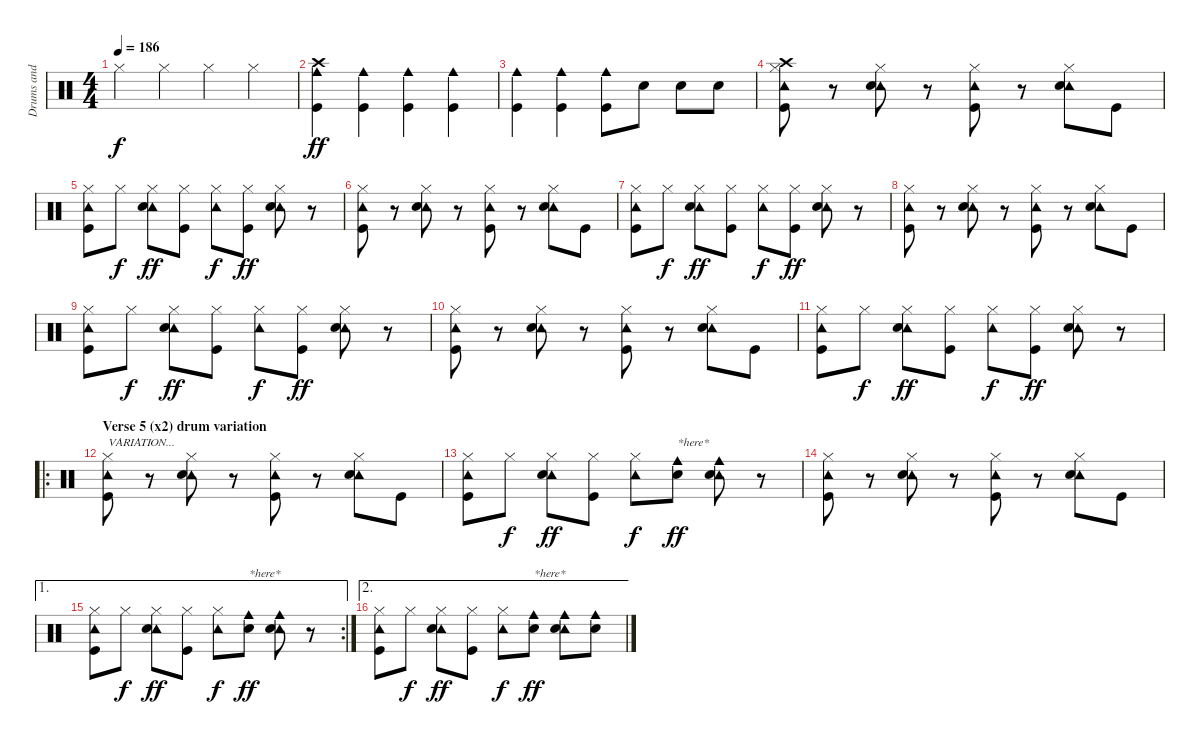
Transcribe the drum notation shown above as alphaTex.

\track ("Drums and Percs" "Drums and ") {instrument percussion}
\staff {score}
\articulation defaults
\ts (4 4)
\tempo 186
\clef neutral
\ks c "Hi-Hat (closed)".4{dy f} "Hi-Hat (closed)".4 "Hi-Hat (closed)".4 "Hi-Hat (closed)".4
|
("Cowbell medium (hit)" "Crash high (hit)" "Kick (hit)").4{dy ff} ("Cowbell medium (hit)" "Kick (hit)").4 ("Cowbell medium (hit)" "Kick (hit)").4 ("Cowbell medium (hit)" "Kick (hit)").4 |
("Cowbell medium (hit)" "Kick (hit)").4 ("Cowbell medium (hit)" "Kick (hit)").4 ("Cowbell medium (hit)" "Kick (hit)").8 "Electric Snare (hit)".8 "Electric Snare (hit)".8 "Electric Snare (hit)".8 |
("Hi-Hat (closed)" "Tambourine (hit)" "Crash high (hit)" "Kick (hit)").8 r.8 ("Hi-Hat (closed)" "Tambourine (hit)" "Electric Snare (hit)").8 r.8 ("Hi-Hat (closed)" "Tambourine (hit)" "Kick (hit)").8 r.8 ("Hi-Hat (closed)" "Tambourine (hit)" "Electric Snare (hit)").8 "Kick (hit)".8 |
("Hi-Hat (closed)" "Tambourine (hit)" "Kick (hit)").8 "Hi-Hat (closed)".8{dy f} ("Hi-Hat (closed)" "Tambourine (hit)" "Electric Snare (hit)").8{dy ff} ("Hi-Hat (closed)" "Kick (hit)").8 ("Hi-Hat (closed)" "Tambourine (hit)").8{dy f} ("Hi-Hat (closed)" "Kick (hit)").8{dy ff} ("Hi-Hat (closed)" "Tambourine (hit)" "Electric Snare (hit)").8 r.8 |
("Hi-Hat (closed)" "Tambourine (hit)" "Kick (hit)").8 r.8 ("Hi-Hat (closed)" "Tambourine (hit)" "Electric Snare (hit)").8 r.8 ("Hi-Hat (closed)" "Tambourine (hit)" "Kick (hit)").8 r.8 ("Hi-Hat (closed)" "Tambourine (hit)" "Electric Snare (hit)").8 "Kick (hit)".8 |
("Hi-Hat (closed)" "Tambourine (hit)" "Kick (hit)").8 "Hi-Hat (closed)".8{dy f} ("Hi-Hat (closed)" "Tambourine (hit)" "Electric Snare (hit)").8{dy ff} ("Hi-Hat (closed)" "Kick (hit)").8 ("Hi-Hat (closed)" "Tambourine (hit)").8{dy f} ("Hi-Hat (closed)" "Kick (hit)").8{dy ff} ("Hi-Hat (closed)" "Tambourine (hit)" "Electric Snare (hit)").8 r.8 |
("Hi-Hat (closed)" "Tambourine (hit)" "Kick (hit)").8 r.8 ("Hi-Hat (closed)" "Tambourine (hit)" "Electric Snare (hit)").8 r.8 ("Hi-Hat (closed)" "Tambourine (hit)" "Kick (hit)").8 r.8 ("Hi-Hat (closed)" "Tambourine (hit)" "Electric Snare (hit)").8 "Kick (hit)".8 |
("Hi-Hat (closed)" "Tambourine (hit)" "Kick (hit)").8 "Hi-Hat (closed)".8{dy f} ("Hi-Hat (closed)" "Tambourine (hit)" "Electric Snare (hit)").8{dy ff} ("Hi-Hat (closed)" "Kick (hit)").8 ("Hi-Hat (closed)" "Tambourine (hit)").8{dy f} ("Hi-Hat (closed)" "Kick (hit)").8{dy ff} ("Hi-Hat (closed)" "Tambourine (hit)" "Electric Snare (hit)").8 r.8 |
("Hi-Hat (closed)" "Tambourine (hit)" "Kick (hit)").8 r.8 ("Hi-Hat (closed)" "Tambourine (hit)" "Electric Snare (hit)").8 r.8 ("Hi-Hat (closed)" "Tambourine (hit)" "Kick (hit)").8 r.8 ("Hi-Hat (closed)" "Tambourine (hit)" "Electric Snare (hit)").8 "Kick (hit)".8 |
("Hi-Hat (closed)" "Tambourine (hit)" "Kick (hit)").8 "Hi-Hat (closed)".8{dy f} ("Hi-Hat (closed)" "Tambourine (hit)" "Electric Snare (hit)").8{dy ff} ("Hi-Hat (closed)" "Kick (hit)").8 ("Hi-Hat (closed)" "Tambourine (hit)").8{dy f} ("Hi-Hat (closed)" "Kick (hit)").8{dy ff} ("Hi-Hat (closed)" "Tambourine (hit)" "Electric Snare (hit)").8 r.8 |
\ro
\section ("" "Verse 5 (x2) drum variation")
("Hi-Hat (closed)" "Tambourine (hit)" "Kick (hit)").8{txt "VARIATION..."} r.8 ("Hi-Hat (closed)" "Tambourine (hit)" "Electric Snare (hit)").8 r.8 ("Hi-Hat (closed)" "Tambourine (hit)" "Kick (hit)").8 r.8 ("Hi-Hat (closed)" "Tambourine (hit)" "Electric Snare (hit)").8 "Kick (hit)".8 |
("Hi-Hat (closed)" "Tambourine (hit)" "Kick (hit)").8 "Hi-Hat (closed)".8{dy f} ("Hi-Hat (closed)" "Tambourine (hit)" "Electric Snare (hit)").8{dy ff} ("Hi-Hat (closed)" "Kick (hit)").8 ("Hi-Hat (closed)" "Tambourine (hit)").8{dy f} ("Cowbell medium (hit)" "Electric Snare (hit)").8{txt "*here*" dy ff} ("Cowbell medium (hit)" "Tambourine (hit)" "Electric Snare (hit)").8 r.8 |
("Hi-Hat (closed)" "Tambourine (hit)" "Kick (hit)").8 r.8 ("Hi-Hat (closed)" "Tambourine (hit)" "Electric Snare (hit)").8 r.8 ("Hi-Hat (closed)" "Tambourine (hit)" "Kick (hit)").8 r.8 ("Hi-Hat (closed)" "Tambourine (hit)" "Electric Snare (hit)").8 "Kick (hit)".8 |
\ae 1
\rc 2
("Hi-Hat (closed)" "Tambourine (hit)" "Kick (hit)").8 "Hi-Hat (closed)".8{dy f} ("Hi-Hat (closed)" "Tambourine (hit)" "Electric Snare (hit)").8{dy ff} ("Hi-Hat (closed)" "Kick (hit)").8 ("Hi-Hat (closed)" "Tambourine (hit)").8{dy f} ("Cowbell medium (hit)" "Electric Snare (hit)").8{txt "*here*" dy ff} ("Cowbell medium (hit)" "Tambourine (hit)" "Electric Snare (hit)").8 r.8 |
\ae 2
("Hi-Hat (closed)" "Tambourine (hit)" "Kick (hit)").8 "Hi-Hat (closed)".8{dy f} ("Hi-Hat (closed)" "Tambourine (hit)" "Electric Snare (hit)").8{dy ff} ("Hi-Hat (closed)" "Kick (hit)").8 ("Hi-Hat (closed)" "Tambourine (hit)").8{dy f} ("Cowbell medium (hit)" "Electric Snare (hit)").8{txt "*here*" dy ff} ("Cowbell medium (hit)" "Tambourine (hit)" "Electric Snare (hit)").8 ("Cowbell medium (hit)" "Electric Snare (hit)").8
